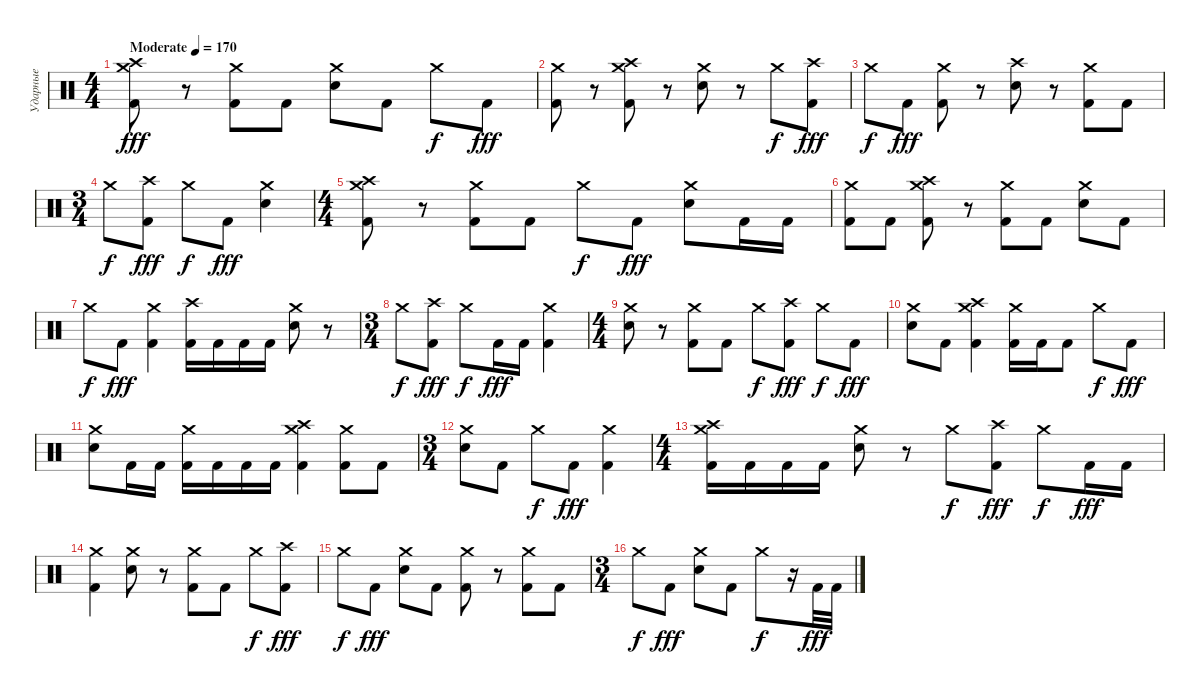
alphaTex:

\track ("Ударные" "Ударные") {instrument percussion}
\staff {score}
\articulation defaults
\ts (4 4)
\tempo (170 "Moderate")
\clef neutral
\ks c
("Crash medium (hit)" "Crash high (hit)" "Kick (hit) 2").8{dy fff} r.8 ("Crash medium (hit)" "Kick (hit) 2").8 "Kick (hit) 2".8 ("Crash medium (hit)" "Electric Snare (hit)").8 "Kick (hit) 2".8 "Crash medium (hit)".8{dy f} "Kick (hit) 2".8{dy fff} |
("Crash medium (hit)" "Kick (hit) 2").8 r.8 ("Crash medium (hit)" "Crash high (hit)" "Kick (hit) 2").8 r.8 ("Crash medium (hit)" "Electric Snare (hit)").8 r.8 "Crash medium (hit)".8{dy f} ("Crash high (hit)" "Kick (hit) 2").8{dy fff} |
"Crash medium (hit)".8{dy f} "Kick (hit) 2".8{dy fff} ("Crash medium (hit)" "Kick (hit) 2").8 r.8 ("Crash high (hit)" "Electric Snare (hit)").8 r.8 ("Crash medium (hit)" "Kick (hit) 2").8 "Kick (hit) 2".8 |
\ts (3 4)
"Crash medium (hit)".8{dy f} ("Crash high (hit)" "Kick (hit) 2").8{dy fff} "Crash medium (hit)".8{dy f} "Kick (hit) 2".8{dy fff} ("Crash medium (hit)" "Electric Snare (hit)").4 |
\ts (4 4)
("Crash medium (hit)" "Crash high (hit)" "Kick (hit) 2").8 r.8 ("Crash medium (hit)" "Kick (hit) 2").8 "Kick (hit) 2".8 "Crash medium (hit)".8{dy f} "Kick (hit) 2".8{dy fff} ("Crash medium (hit)" "Electric Snare (hit)").8 "Kick (hit) 2".16 "Kick (hit) 2".16 |
("Crash medium (hit)" "Kick (hit) 2").8 "Kick (hit) 2".8 ("Crash medium (hit)" "Crash high (hit)" "Kick (hit) 2").8 r.8 ("Crash medium (hit)" "Kick (hit) 2").8 "Kick (hit) 2".8 ("Crash medium (hit)" "Electric Snare (hit)").8 "Kick (hit) 2".8 |
"Crash medium (hit)".8{dy f} "Kick (hit) 2".8{dy fff} ("Crash medium (hit)" "Kick (hit) 2").4 ("Crash high (hit)" "Kick (hit) 2").16 "Kick (hit) 2".16 "Kick (hit) 2".16 "Kick (hit) 2".16 ("Crash medium (hit)" "Electric Snare (hit)").8 r.8 |
\ts (3 4)
"Crash medium (hit)".8{dy f} ("Crash high (hit)" "Kick (hit) 2").8{dy fff} "Crash medium (hit)".8{dy f} "Kick (hit) 2".16{dy fff} "Kick (hit) 2".16 ("Crash medium (hit)" "Kick (hit) 2").4 |
\ts (4 4)
("Crash medium (hit)" "Electric Snare (hit)").8 r.8 ("Crash medium (hit)" "Kick (hit) 2").8 "Kick (hit) 2".8 "Crash medium (hit)".8{dy f} ("Crash high (hit)" "Kick (hit) 2").8{dy fff} "Crash medium (hit)".8{dy f} "Kick (hit) 2".8{dy fff} |
("Crash medium (hit)" "Electric Snare (hit)").8 "Kick (hit) 2".8 ("Crash medium (hit)" "Crash high (hit)" "Kick (hit) 2").4 ("Crash medium (hit)" "Kick (hit) 2").16 "Kick (hit) 2".16 "Kick (hit) 2".8 "Crash medium (hit)".8{dy f} "Kick (hit) 2".8{dy fff} |
("Crash medium (hit)" "Electric Snare (hit)").8 "Kick (hit) 2".16 "Kick (hit) 2".16 ("Crash medium (hit)" "Kick (hit) 2").16 "Kick (hit) 2".16 "Kick (hit) 2".16 "Kick (hit) 2".16 ("Crash medium (hit)" "Crash high (hit)" "Kick (hit) 2").4 ("Crash medium (hit)" "Kick (hit) 2").8 "Kick (hit) 2".8 |
\ts (3 4)
("Crash medium (hit)" "Electric Snare (hit)").8 "Kick (hit) 2".8 "Crash medium (hit)".8{dy f} "Kick (hit) 2".8{dy fff} ("Crash medium (hit)" "Kick (hit) 2").4 |
\ts (4 4)
("Crash medium (hit)" "Crash high (hit)" "Kick (hit) 2").16 "Kick (hit) 2".16 "Kick (hit) 2".16 "Kick (hit) 2".16 ("Crash medium (hit)" "Electric Snare (hit)").8 r.8 "Crash medium (hit)".8{dy f} ("Crash high (hit)" "Kick (hit) 2").8{dy fff} "Crash medium (hit)".8{dy f} "Kick (hit) 2".16{dy fff} "Kick (hit) 2".16 |
("Crash medium (hit)" "Kick (hit) 2").4 ("Crash medium (hit)" "Electric Snare (hit)").8 r.8 ("Crash medium (hit)" "Kick (hit) 2").8 "Kick (hit) 2".8 "Crash medium (hit)".8{dy f} ("Crash high (hit)" "Kick (hit) 2").8{dy fff} |
"Crash medium (hit)".8{dy f} "Kick (hit) 2".8{dy fff} ("Crash medium (hit)" "Electric Snare (hit)").8 "Kick (hit) 2".8 ("Crash medium (hit)" "Kick (hit) 2").8 r.8 ("Crash medium (hit)" "Kick (hit) 2").8 "Kick (hit) 2".8 |
\ts (3 4)
"Crash medium (hit)".8{dy f} "Kick (hit) 2".8{dy fff} ("Crash medium (hit)" "Electric Snare (hit)").8 "Kick (hit) 2".8 "Crash medium (hit)".8{dy f} r.16 "Kick (hit) 2".32{dy fff} "Kick (hit) 2".32
